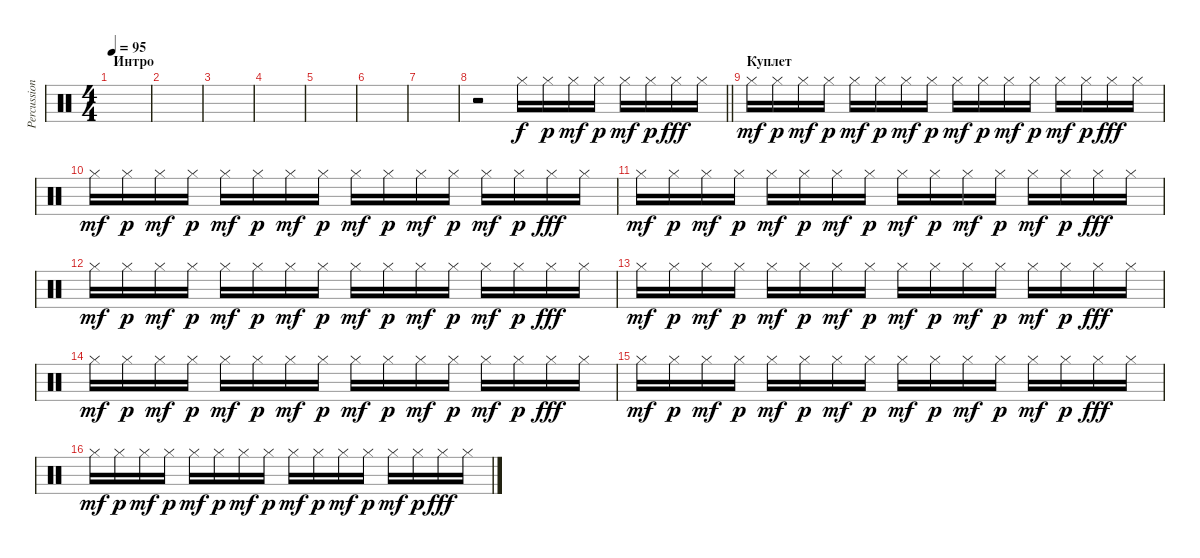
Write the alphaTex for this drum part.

\track ("Percussion" "Percussion") {instrument percussion}
\staff {score}
\articulation defaults
\ts (4 4)
\section ("" "Интро")
\tempo 95
\clef neutral
\ks c
|
|
|
|
|
|
|
\barLineRight lightlight
r.2 "Hi-Hat (closed)".16 "Hi-Hat (closed)".16{dy p} "Hi-Hat (closed)".16{dy mf} "Hi-Hat (closed)".16{dy p} "Hi-Hat (closed)".16{dy mf} "Hi-Hat (closed)".16{dy p} "Hi-Hat (closed)".16{dy fff} "Hi-Hat (closed)".16 |
\section ("" "Куплет")
"Hi-Hat (closed)".16{dy mf} "Hi-Hat (closed)".16{dy p} "Hi-Hat (closed)".16{dy mf} "Hi-Hat (closed)".16{dy p} "Hi-Hat (closed)".16{dy mf} "Hi-Hat (closed)".16{dy p} "Hi-Hat (closed)".16{dy mf} "Hi-Hat (closed)".16{dy p} "Hi-Hat (closed)".16{dy mf} "Hi-Hat (closed)".16{dy p} "Hi-Hat (closed)".16{dy mf} "Hi-Hat (closed)".16{dy p} "Hi-Hat (closed)".16{dy mf} "Hi-Hat (closed)".16{dy p} "Hi-Hat (closed)".16{dy fff} "Hi-Hat (closed)".16 |
"Hi-Hat (closed)".16{dy mf} "Hi-Hat (closed)".16{dy p} "Hi-Hat (closed)".16{dy mf} "Hi-Hat (closed)".16{dy p} "Hi-Hat (closed)".16{dy mf} "Hi-Hat (closed)".16{dy p} "Hi-Hat (closed)".16{dy mf} "Hi-Hat (closed)".16{dy p} "Hi-Hat (closed)".16{dy mf} "Hi-Hat (closed)".16{dy p} "Hi-Hat (closed)".16{dy mf} "Hi-Hat (closed)".16{dy p} "Hi-Hat (closed)".16{dy mf} "Hi-Hat (closed)".16{dy p} "Hi-Hat (closed)".16{dy fff} "Hi-Hat (closed)".16 |
"Hi-Hat (closed)".16{dy mf} "Hi-Hat (closed)".16{dy p} "Hi-Hat (closed)".16{dy mf} "Hi-Hat (closed)".16{dy p} "Hi-Hat (closed)".16{dy mf} "Hi-Hat (closed)".16{dy p} "Hi-Hat (closed)".16{dy mf} "Hi-Hat (closed)".16{dy p} "Hi-Hat (closed)".16{dy mf} "Hi-Hat (closed)".16{dy p} "Hi-Hat (closed)".16{dy mf} "Hi-Hat (closed)".16{dy p} "Hi-Hat (closed)".16{dy mf} "Hi-Hat (closed)".16{dy p} "Hi-Hat (closed)".16{dy fff} "Hi-Hat (closed)".16 |
"Hi-Hat (closed)".16{dy mf} "Hi-Hat (closed)".16{dy p} "Hi-Hat (closed)".16{dy mf} "Hi-Hat (closed)".16{dy p} "Hi-Hat (closed)".16{dy mf} "Hi-Hat (closed)".16{dy p} "Hi-Hat (closed)".16{dy mf} "Hi-Hat (closed)".16{dy p} "Hi-Hat (closed)".16{dy mf} "Hi-Hat (closed)".16{dy p} "Hi-Hat (closed)".16{dy mf} "Hi-Hat (closed)".16{dy p} "Hi-Hat (closed)".16{dy mf} "Hi-Hat (closed)".16{dy p} "Hi-Hat (closed)".16{dy fff} "Hi-Hat (closed)".16 |
"Hi-Hat (closed)".16{dy mf} "Hi-Hat (closed)".16{dy p} "Hi-Hat (closed)".16{dy mf} "Hi-Hat (closed)".16{dy p} "Hi-Hat (closed)".16{dy mf} "Hi-Hat (closed)".16{dy p} "Hi-Hat (closed)".16{dy mf} "Hi-Hat (closed)".16{dy p} "Hi-Hat (closed)".16{dy mf} "Hi-Hat (closed)".16{dy p} "Hi-Hat (closed)".16{dy mf} "Hi-Hat (closed)".16{dy p} "Hi-Hat (closed)".16{dy mf} "Hi-Hat (closed)".16{dy p} "Hi-Hat (closed)".16{dy fff} "Hi-Hat (closed)".16 |
"Hi-Hat (closed)".16{dy mf} "Hi-Hat (closed)".16{dy p} "Hi-Hat (closed)".16{dy mf} "Hi-Hat (closed)".16{dy p} "Hi-Hat (closed)".16{dy mf} "Hi-Hat (closed)".16{dy p} "Hi-Hat (closed)".16{dy mf} "Hi-Hat (closed)".16{dy p} "Hi-Hat (closed)".16{dy mf} "Hi-Hat (closed)".16{dy p} "Hi-Hat (closed)".16{dy mf} "Hi-Hat (closed)".16{dy p} "Hi-Hat (closed)".16{dy mf} "Hi-Hat (closed)".16{dy p} "Hi-Hat (closed)".16{dy fff} "Hi-Hat (closed)".16 |
"Hi-Hat (closed)".16{dy mf} "Hi-Hat (closed)".16{dy p} "Hi-Hat (closed)".16{dy mf} "Hi-Hat (closed)".16{dy p} "Hi-Hat (closed)".16{dy mf} "Hi-Hat (closed)".16{dy p} "Hi-Hat (closed)".16{dy mf} "Hi-Hat (closed)".16{dy p} "Hi-Hat (closed)".16{dy mf} "Hi-Hat (closed)".16{dy p} "Hi-Hat (closed)".16{dy mf} "Hi-Hat (closed)".16{dy p} "Hi-Hat (closed)".16{dy mf} "Hi-Hat (closed)".16{dy p} "Hi-Hat (closed)".16{dy fff} "Hi-Hat (closed)".16 |
"Hi-Hat (closed)".16{dy mf} "Hi-Hat (closed)".16{dy p} "Hi-Hat (closed)".16{dy mf} "Hi-Hat (closed)".16{dy p} "Hi-Hat (closed)".16{dy mf} "Hi-Hat (closed)".16{dy p} "Hi-Hat (closed)".16{dy mf} "Hi-Hat (closed)".16{dy p} "Hi-Hat (closed)".16{dy mf} "Hi-Hat (closed)".16{dy p} "Hi-Hat (closed)".16{dy mf} "Hi-Hat (closed)".16{dy p} "Hi-Hat (closed)".16{dy mf} "Hi-Hat (closed)".16{dy p} "Hi-Hat (closed)".16{dy fff} "Hi-Hat (closed)".16
